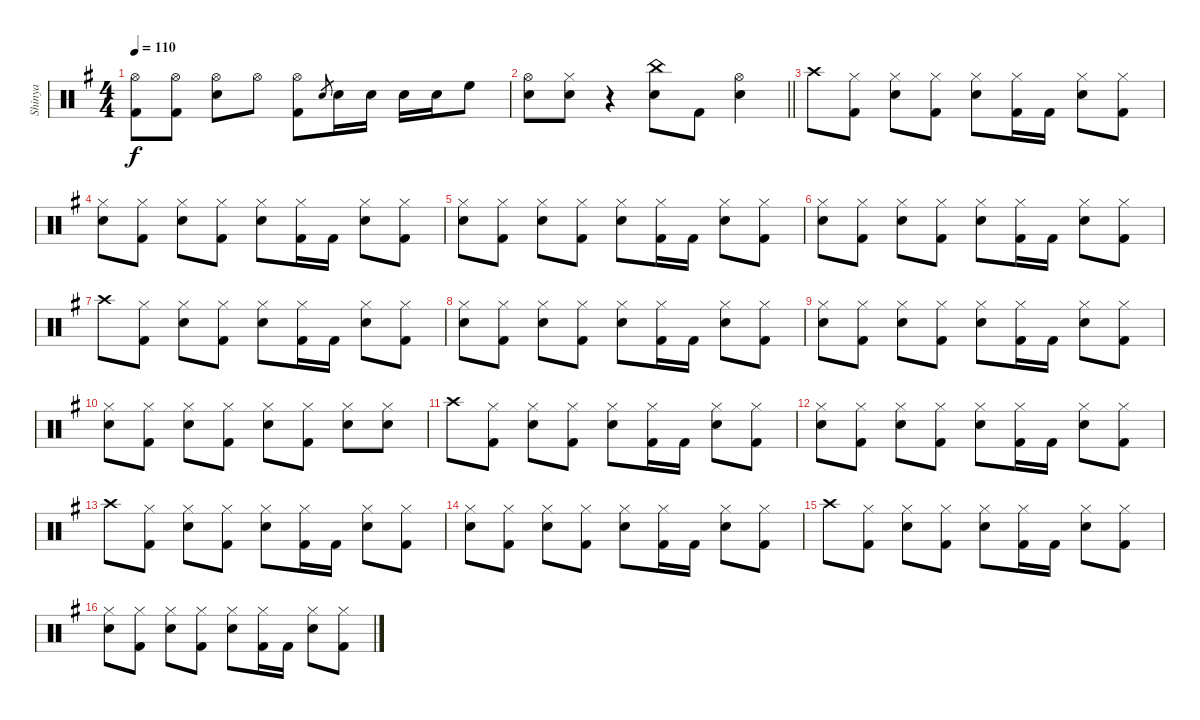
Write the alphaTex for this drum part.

\track ("Shinya" "Shinya") {instrument percussion}
\staff {score}
\articulation defaults
\ts (4 4)
\tempo 110
\clef neutral
\ks g
("Hi-Hat (open)" "Kick (hit) 2").8{dy f} ("Hi-Hat (open)" "Kick (hit) 2").8 ("Hi-Hat (open)" "Electric Snare (hit)").8 "Hi-Hat (open)".8 ("Hi-Hat (open)" "Kick (hit) 2").8 "Electric Snare (hit)".8{gr} "Electric Snare (hit)".16 "Electric Snare (hit)".16 "Electric Snare (hit)".16 "Electric Snare (hit)".16 "High Floor Tom (hit)".8 |
\barLineRight lightlight
("Hi-Hat (open)" "Electric Snare (hit)").8 ("Hi-Hat (closed)" "Electric Snare (hit)").8 r.4 ("China (hit)" "Electric Snare (hit)").8 "Kick (hit) 2".8 ("Hi-Hat (open)" "Electric Snare (hit)").4 |
"Crash high (hit)".8 ("Hi-Hat (closed)" "Kick (hit) 2").8 ("Hi-Hat (closed)" "Electric Snare (hit)").8 ("Hi-Hat (closed)" "Kick (hit) 2").8 ("Hi-Hat (closed)" "Electric Snare (hit)").8 ("Hi-Hat (closed)" "Kick (hit) 2").16 "Kick (hit) 2".16 ("Hi-Hat (closed)" "Electric Snare (hit)").8 ("Hi-Hat (closed)" "Kick (hit) 2").8 |
("Hi-Hat (closed)" "Electric Snare (hit)").8 ("Hi-Hat (closed)" "Kick (hit) 2").8 ("Hi-Hat (closed)" "Electric Snare (hit)").8 ("Hi-Hat (closed)" "Kick (hit) 2").8 ("Hi-Hat (closed)" "Electric Snare (hit)").8 ("Hi-Hat (closed)" "Kick (hit) 2").16 "Kick (hit) 2".16 ("Hi-Hat (closed)" "Electric Snare (hit)").8 ("Hi-Hat (closed)" "Kick (hit) 2").8 |
("Hi-Hat (closed)" "Electric Snare (hit)").8 ("Hi-Hat (closed)" "Kick (hit) 2").8 ("Hi-Hat (closed)" "Electric Snare (hit)").8 ("Hi-Hat (closed)" "Kick (hit) 2").8 ("Hi-Hat (closed)" "Electric Snare (hit)").8 ("Hi-Hat (closed)" "Kick (hit) 2").16 "Kick (hit) 2".16 ("Hi-Hat (closed)" "Electric Snare (hit)").8 ("Hi-Hat (closed)" "Kick (hit) 2").8 |
("Hi-Hat (closed)" "Electric Snare (hit)").8 ("Hi-Hat (closed)" "Kick (hit) 2").8 ("Hi-Hat (closed)" "Electric Snare (hit)").8 ("Hi-Hat (closed)" "Kick (hit) 2").8 ("Hi-Hat (closed)" "Electric Snare (hit)").8 ("Hi-Hat (closed)" "Kick (hit) 2").16 "Kick (hit) 2".16 ("Hi-Hat (closed)" "Electric Snare (hit)").8 ("Hi-Hat (closed)" "Kick (hit) 2").8 |
"Crash high (hit)".8 ("Hi-Hat (closed)" "Kick (hit) 2").8 ("Hi-Hat (closed)" "Electric Snare (hit)").8 ("Hi-Hat (closed)" "Kick (hit) 2").8 ("Hi-Hat (closed)" "Electric Snare (hit)").8 ("Hi-Hat (closed)" "Kick (hit) 2").16 "Kick (hit) 2".16 ("Hi-Hat (closed)" "Electric Snare (hit)").8 ("Hi-Hat (closed)" "Kick (hit) 2").8 |
("Hi-Hat (closed)" "Electric Snare (hit)").8 ("Hi-Hat (closed)" "Kick (hit) 2").8 ("Hi-Hat (closed)" "Electric Snare (hit)").8 ("Hi-Hat (closed)" "Kick (hit) 2").8 ("Hi-Hat (closed)" "Electric Snare (hit)").8 ("Hi-Hat (closed)" "Kick (hit) 2").16 "Kick (hit) 2".16 ("Hi-Hat (closed)" "Electric Snare (hit)").8 ("Hi-Hat (closed)" "Kick (hit) 2").8 |
("Hi-Hat (closed)" "Electric Snare (hit)").8 ("Hi-Hat (closed)" "Kick (hit) 2").8 ("Hi-Hat (closed)" "Electric Snare (hit)").8 ("Hi-Hat (closed)" "Kick (hit) 2").8 ("Hi-Hat (closed)" "Electric Snare (hit)").8 ("Hi-Hat (closed)" "Kick (hit) 2").16 "Kick (hit) 2".16 ("Hi-Hat (closed)" "Electric Snare (hit)").8 ("Hi-Hat (closed)" "Kick (hit) 2").8 |
("Hi-Hat (closed)" "Electric Snare (hit)").8 ("Hi-Hat (closed)" "Kick (hit) 2").8 ("Hi-Hat (closed)" "Electric Snare (hit)").8 ("Hi-Hat (closed)" "Kick (hit) 2").8 ("Hi-Hat (closed)" "Electric Snare (hit)").8 ("Hi-Hat (closed)" "Kick (hit) 2").8 ("Hi-Hat (closed)" "Electric Snare (hit)").8 ("Hi-Hat (closed)" "Electric Snare (hit)").8 |
"Crash high (hit)".8 ("Hi-Hat (closed)" "Kick (hit) 2").8 ("Hi-Hat (closed)" "Electric Snare (hit)").8 ("Hi-Hat (closed)" "Kick (hit) 2").8 ("Hi-Hat (closed)" "Electric Snare (hit)").8 ("Hi-Hat (closed)" "Kick (hit) 2").16 "Kick (hit) 2".16 ("Hi-Hat (closed)" "Electric Snare (hit)").8 ("Hi-Hat (closed)" "Kick (hit) 2").8 |
("Hi-Hat (closed)" "Electric Snare (hit)").8 ("Hi-Hat (closed)" "Kick (hit) 2").8 ("Hi-Hat (closed)" "Electric Snare (hit)").8 ("Hi-Hat (closed)" "Kick (hit) 2").8 ("Hi-Hat (closed)" "Electric Snare (hit)").8 ("Hi-Hat (closed)" "Kick (hit) 2").16 "Kick (hit) 2".16 ("Hi-Hat (closed)" "Electric Snare (hit)").8 ("Hi-Hat (closed)" "Kick (hit) 2").8 |
"Crash high (hit)".8 ("Hi-Hat (closed)" "Kick (hit) 2").8 ("Hi-Hat (closed)" "Electric Snare (hit)").8 ("Hi-Hat (closed)" "Kick (hit) 2").8 ("Hi-Hat (closed)" "Electric Snare (hit)").8 ("Hi-Hat (closed)" "Kick (hit) 2").16 "Kick (hit) 2".16 ("Hi-Hat (closed)" "Electric Snare (hit)").8 ("Hi-Hat (closed)" "Kick (hit) 2").8 |
("Hi-Hat (closed)" "Electric Snare (hit)").8 ("Hi-Hat (closed)" "Kick (hit) 2").8 ("Hi-Hat (closed)" "Electric Snare (hit)").8 ("Hi-Hat (closed)" "Kick (hit) 2").8 ("Hi-Hat (closed)" "Electric Snare (hit)").8 ("Hi-Hat (closed)" "Kick (hit) 2").16 "Kick (hit) 2".16 ("Hi-Hat (closed)" "Electric Snare (hit)").8 ("Hi-Hat (closed)" "Kick (hit) 2").8 |
"Crash high (hit)".8 ("Hi-Hat (closed)" "Kick (hit) 2").8 ("Hi-Hat (closed)" "Electric Snare (hit)").8 ("Hi-Hat (closed)" "Kick (hit) 2").8 ("Hi-Hat (closed)" "Electric Snare (hit)").8 ("Hi-Hat (closed)" "Kick (hit) 2").16 "Kick (hit) 2".16 ("Hi-Hat (closed)" "Electric Snare (hit)").8 ("Hi-Hat (closed)" "Kick (hit) 2").8 |
("Hi-Hat (closed)" "Electric Snare (hit)").8 ("Hi-Hat (closed)" "Kick (hit) 2").8 ("Hi-Hat (closed)" "Electric Snare (hit)").8 ("Hi-Hat (closed)" "Kick (hit) 2").8 ("Hi-Hat (closed)" "Electric Snare (hit)").8 ("Hi-Hat (closed)" "Kick (hit) 2").16 "Kick (hit) 2".16 ("Hi-Hat (closed)" "Electric Snare (hit)").8 ("Hi-Hat (closed)" "Kick (hit) 2").8
